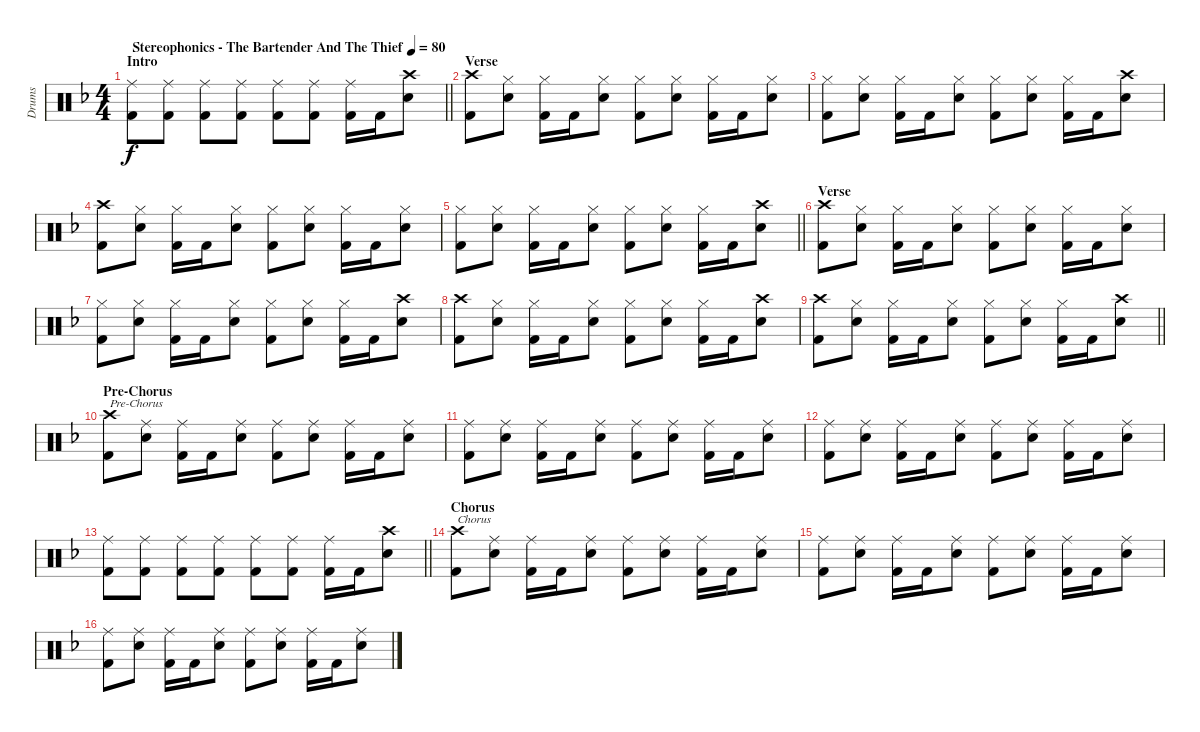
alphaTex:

\track ("Drums" "Drums") {instrument percussion}
\staff {score}
\articulation defaults
\ts (4 4)
\section ("" "Intro")
\tempo (80 "Stereophonics - The Bartender And The Thief")
\clef neutral
\barLineRight lightlight
\ks f
("Ride (middle)" "Kick (hit) 2").8{dy f} ("Ride (middle)" "Kick (hit) 2").8 ("Ride (middle)" "Kick (hit) 2").8 ("Ride (middle)" "Kick (hit) 2").8 ("Ride (middle)" "Kick (hit) 2").8 ("Ride (middle)" "Kick (hit) 2").8 ("Ride (middle)" "Kick (hit) 2").16 "Kick (hit) 2".16 ("Crash high (hit)" "Electric Snare (hit)").8 |
\section ("" "Verse")
("Crash high (hit)" "Kick (hit) 2").8 ("Hi-Hat (closed)" "Electric Snare (hit)").8 ("Hi-Hat (closed)" "Kick (hit) 2").16 "Kick (hit) 2".16 ("Hi-Hat (closed)" "Electric Snare (hit)").8 ("Hi-Hat (closed)" "Kick (hit) 2").8 ("Hi-Hat (closed)" "Electric Snare (hit)").8 ("Hi-Hat (closed)" "Kick (hit) 2").16 "Kick (hit) 2".16 ("Hi-Hat (closed)" "Electric Snare (hit)").8 |
("Hi-Hat (closed)" "Kick (hit) 2").8 ("Hi-Hat (closed)" "Electric Snare (hit)").8 ("Hi-Hat (closed)" "Kick (hit) 2").16 "Kick (hit) 2".16 ("Hi-Hat (closed)" "Electric Snare (hit)").8 ("Hi-Hat (closed)" "Kick (hit) 2").8 ("Hi-Hat (closed)" "Electric Snare (hit)").8 ("Hi-Hat (closed)" "Kick (hit) 2").16 "Kick (hit) 2".16 ("Crash high (hit)" "Electric Snare (hit)").8 |
("Crash high (hit)" "Kick (hit) 2").8 ("Hi-Hat (closed)" "Electric Snare (hit)").8 ("Hi-Hat (closed)" "Kick (hit) 2").16 "Kick (hit) 2".16 ("Hi-Hat (closed)" "Electric Snare (hit)").8 ("Hi-Hat (closed)" "Kick (hit) 2").8 ("Hi-Hat (closed)" "Electric Snare (hit)").8 ("Hi-Hat (closed)" "Kick (hit) 2").16 "Kick (hit) 2".16 ("Hi-Hat (closed)" "Electric Snare (hit)").8 |
\barLineRight lightlight
("Hi-Hat (closed)" "Kick (hit) 2").8 ("Hi-Hat (closed)" "Electric Snare (hit)").8 ("Hi-Hat (closed)" "Kick (hit) 2").16 "Kick (hit) 2".16 ("Hi-Hat (closed)" "Electric Snare (hit)").8 ("Hi-Hat (closed)" "Kick (hit) 2").8 ("Hi-Hat (closed)" "Electric Snare (hit)").8 ("Hi-Hat (closed)" "Kick (hit) 2").16 "Kick (hit) 2".16 ("Crash high (hit)" "Electric Snare (hit)").8 |
\section ("" "Verse")
("Crash high (hit)" "Kick (hit) 2").8 ("Hi-Hat (closed)" "Electric Snare (hit)").8 ("Hi-Hat (closed)" "Kick (hit) 2").16 "Kick (hit) 2".16 ("Hi-Hat (closed)" "Electric Snare (hit)").8 ("Hi-Hat (closed)" "Kick (hit) 2").8 ("Hi-Hat (closed)" "Electric Snare (hit)").8 ("Hi-Hat (closed)" "Kick (hit) 2").16 "Kick (hit) 2".16 ("Hi-Hat (closed)" "Electric Snare (hit)").8 |
("Hi-Hat (closed)" "Kick (hit) 2").8 ("Hi-Hat (closed)" "Electric Snare (hit)").8 ("Hi-Hat (closed)" "Kick (hit) 2").16 "Kick (hit) 2".16 ("Hi-Hat (closed)" "Electric Snare (hit)").8 ("Hi-Hat (closed)" "Kick (hit) 2").8 ("Hi-Hat (closed)" "Electric Snare (hit)").8 ("Hi-Hat (closed)" "Kick (hit) 2").16 "Kick (hit) 2".16 ("Crash high (hit)" "Electric Snare (hit)").8 |
("Crash high (hit)" "Kick (hit) 2").8 ("Hi-Hat (closed)" "Electric Snare (hit)").8 ("Hi-Hat (closed)" "Kick (hit) 2").16 "Kick (hit) 2".16 ("Hi-Hat (closed)" "Electric Snare (hit)").8 ("Hi-Hat (closed)" "Kick (hit) 2").8 ("Hi-Hat (closed)" "Electric Snare (hit)").8 ("Hi-Hat (closed)" "Kick (hit) 2").16 "Kick (hit) 2".16 ("Crash high (hit)" "Electric Snare (hit)").8 |
\barLineRight lightlight
("Crash high (hit)" "Kick (hit) 2").8 ("Hi-Hat (closed)" "Electric Snare (hit)").8 ("Hi-Hat (closed)" "Kick (hit) 2").16 "Kick (hit) 2".16 ("Hi-Hat (closed)" "Electric Snare (hit)").8 ("Hi-Hat (closed)" "Kick (hit) 2").8 ("Hi-Hat (closed)" "Electric Snare (hit)").8 ("Hi-Hat (closed)" "Kick (hit) 2").16 "Kick (hit) 2".16 ("Crash high (hit)" "Electric Snare (hit)").8 |
\section ("" "Pre-Chorus")
("Crash high (hit)" "Kick (hit) 2").8{txt "Pre-Chorus"} ("Ride (middle)" "Electric Snare (hit)").8 ("Ride (middle)" "Kick (hit) 2").16 "Kick (hit) 2".16 ("Ride (middle)" "Electric Snare (hit)").8 ("Ride (middle)" "Kick (hit) 2").8 ("Ride (middle)" "Electric Snare (hit)").8 ("Ride (middle)" "Kick (hit) 2").16 "Kick (hit) 2".16 ("Ride (middle)" "Electric Snare (hit)").8 |
("Ride (middle)" "Kick (hit) 2").8 ("Ride (middle)" "Electric Snare (hit)").8 ("Ride (middle)" "Kick (hit) 2").16 "Kick (hit) 2".16 ("Ride (middle)" "Electric Snare (hit)").8 ("Ride (middle)" "Kick (hit) 2").8 ("Ride (middle)" "Electric Snare (hit)").8 ("Ride (middle)" "Kick (hit) 2").16 "Kick (hit) 2".16 ("Ride (middle)" "Electric Snare (hit)").8 |
("Ride (middle)" "Kick (hit) 2").8 ("Ride (middle)" "Electric Snare (hit)").8 ("Ride (middle)" "Kick (hit) 2").16 "Kick (hit) 2".16 ("Ride (middle)" "Electric Snare (hit)").8 ("Ride (middle)" "Kick (hit) 2").8 ("Ride (middle)" "Electric Snare (hit)").8 ("Ride (middle)" "Kick (hit) 2").16 "Kick (hit) 2".16 ("Ride (middle)" "Electric Snare (hit)").8 |
\barLineRight lightlight
("Ride (middle)" "Kick (hit) 2").8 ("Ride (middle)" "Kick (hit) 2").8 ("Ride (middle)" "Kick (hit) 2").8 ("Ride (middle)" "Kick (hit) 2").8 ("Ride (middle)" "Kick (hit) 2").8 ("Ride (middle)" "Kick (hit) 2").8 ("Ride (middle)" "Kick (hit) 2").16 "Kick (hit) 2".16 ("Crash high (hit)" "Electric Snare (hit)").8 |
\section ("" "Chorus")
("Crash high (hit)" "Kick (hit) 2").8{txt "Chorus"} ("Ride (middle)" "Electric Snare (hit)").8 ("Ride (middle)" "Kick (hit) 2").16 "Kick (hit) 2".16 ("Ride (middle)" "Electric Snare (hit)").8 ("Ride (middle)" "Kick (hit) 2").8 ("Ride (middle)" "Electric Snare (hit)").8 ("Ride (middle)" "Kick (hit) 2").16 "Kick (hit) 2".16 ("Ride (middle)" "Electric Snare (hit)").8 |
("Ride (middle)" "Kick (hit) 2").8 ("Ride (middle)" "Electric Snare (hit)").8 ("Ride (middle)" "Kick (hit) 2").16 "Kick (hit) 2".16 ("Ride (middle)" "Electric Snare (hit)").8 ("Ride (middle)" "Kick (hit) 2").8 ("Ride (middle)" "Electric Snare (hit)").8 ("Ride (middle)" "Kick (hit) 2").16 "Kick (hit) 2".16 ("Ride (middle)" "Electric Snare (hit)").8 |
("Ride (middle)" "Kick (hit) 2").8 ("Ride (middle)" "Electric Snare (hit)").8 ("Ride (middle)" "Kick (hit) 2").16 "Kick (hit) 2".16 ("Ride (middle)" "Electric Snare (hit)").8 ("Ride (middle)" "Kick (hit) 2").8 ("Ride (middle)" "Electric Snare (hit)").8 ("Ride (middle)" "Kick (hit) 2").16 "Kick (hit) 2".16 ("Ride (middle)" "Electric Snare (hit)").8
